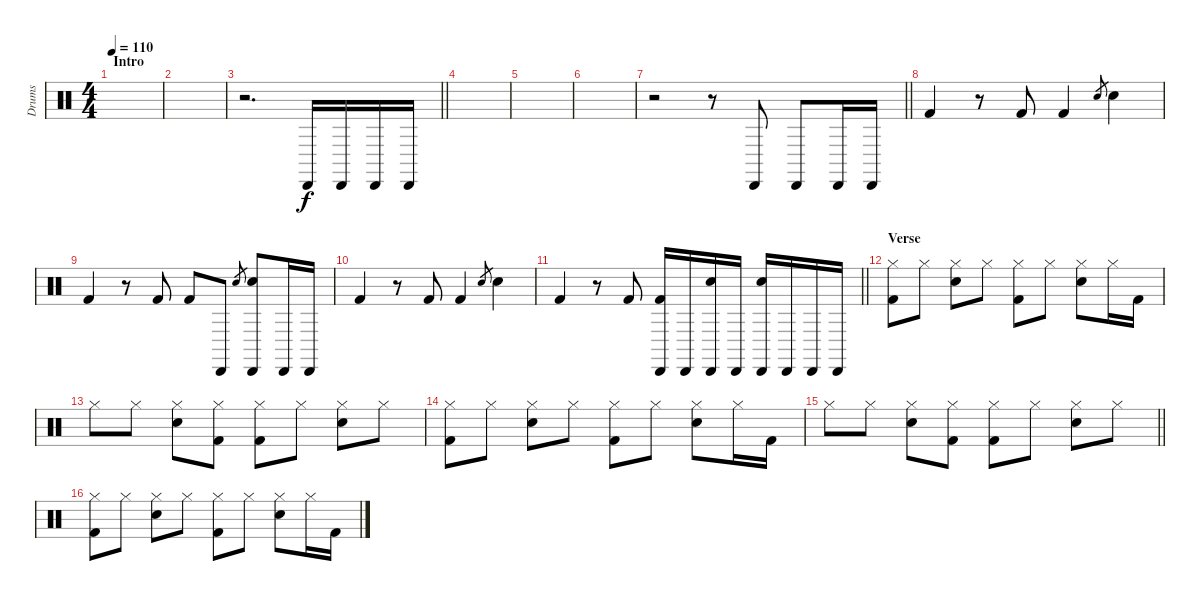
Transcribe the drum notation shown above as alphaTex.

\track ("Drums" "Drums") {instrument percussion}
\staff {score}
\articulation defaults
\ts (4 4)
\section ("" "Intro")
\tempo 110
\clef neutral
\ks c
|
|
\barLineRight lightlight
r.2{d} "Cabasa (hit)".16 "Cabasa (hit)".16 "Cabasa (hit)".16 "Cabasa (hit)".16 |
|
|
|
\barLineRight lightlight
r.2 r.8 "Cabasa (hit)".8 "Cabasa (hit)".8 "Cabasa (hit)".16 "Cabasa (hit)".16 |
"Kick (hit) 2".4 r.8 "Kick (hit) 2".8 "Kick (hit) 2".4 "Snare (hit) 2".8{gr} "Snare (hit) 2".4 |
"Kick (hit) 2".4 r.8 "Kick (hit) 2".8 "Kick (hit) 2".8 "Cabasa (hit)".8 "Snare (hit) 2".8{gr} ("Cabasa (hit)" "Snare (hit) 2").8 "Cabasa (hit)".16 "Cabasa (hit)".16 |
"Kick (hit) 2".4 r.8 "Kick (hit) 2".8 "Kick (hit) 2".4 "Snare (hit) 2".8{gr} "Snare (hit) 2".4 |
\barLineRight lightlight "Kick (hit) 2".4
r.8 "Kick (hit) 2".8 ("Cabasa (hit)" "Kick (hit) 2").16 "Cabasa (hit)".16 ("Cabasa (hit)" "Snare (hit) 2").16 "Cabasa (hit)".16 ("Cabasa (hit)" "Snare (hit) 2").16 "Cabasa (hit)".16 "Cabasa (hit)".16 "Cabasa (hit)".16 |
\section ("" "Verse")
("Hi-Hat (closed)" "Kick (hit) 2").8 "Hi-Hat (closed)".8 ("Hi-Hat (closed)" "Snare (hit) 2").8 "Hi-Hat (closed)".8 ("Hi-Hat (closed)" "Kick (hit) 2").8 "Hi-Hat (closed)".8 ("Hi-Hat (closed)" "Snare (hit) 2").8 "Hi-Hat (closed)".16 "Kick (hit) 2".16 |
"Hi-Hat (closed)".8 "Hi-Hat (closed)".8 ("Hi-Hat (closed)" "Snare (hit) 2").8 ("Hi-Hat (closed)" "Kick (hit) 2").8 ("Hi-Hat (closed)" "Kick (hit) 2").8 "Hi-Hat (closed)".8 ("Hi-Hat (closed)" "Snare (hit) 2").8 "Hi-Hat (closed)".8 |
("Hi-Hat (closed)" "Kick (hit) 2").8 "Hi-Hat (closed)".8 ("Hi-Hat (closed)" "Snare (hit) 2").8 "Hi-Hat (closed)".8 ("Hi-Hat (closed)" "Kick (hit) 2").8 "Hi-Hat (closed)".8 ("Hi-Hat (closed)" "Snare (hit) 2").8 "Hi-Hat (closed)".16 "Kick (hit) 2".16 |
\barLineRight lightlight "Hi-Hat (closed)".8 "Hi-Hat (closed)".8
("Hi-Hat (closed)" "Snare (hit) 2").8 ("Hi-Hat (closed)" "Kick (hit) 2").8 ("Hi-Hat (closed)" "Kick (hit) 2").8 "Hi-Hat (closed)".8 ("Hi-Hat (closed)" "Snare (hit) 2").8 "Hi-Hat (closed)".8 |
("Hi-Hat (closed)" "Kick (hit) 2").8 "Hi-Hat (closed)".8 ("Hi-Hat (closed)" "Snare (hit) 2").8 "Hi-Hat (closed)".8 ("Hi-Hat (closed)" "Kick (hit) 2").8 "Hi-Hat (closed)".8 ("Hi-Hat (closed)" "Snare (hit) 2").8 "Hi-Hat (closed)".16 "Kick (hit) 2".16
